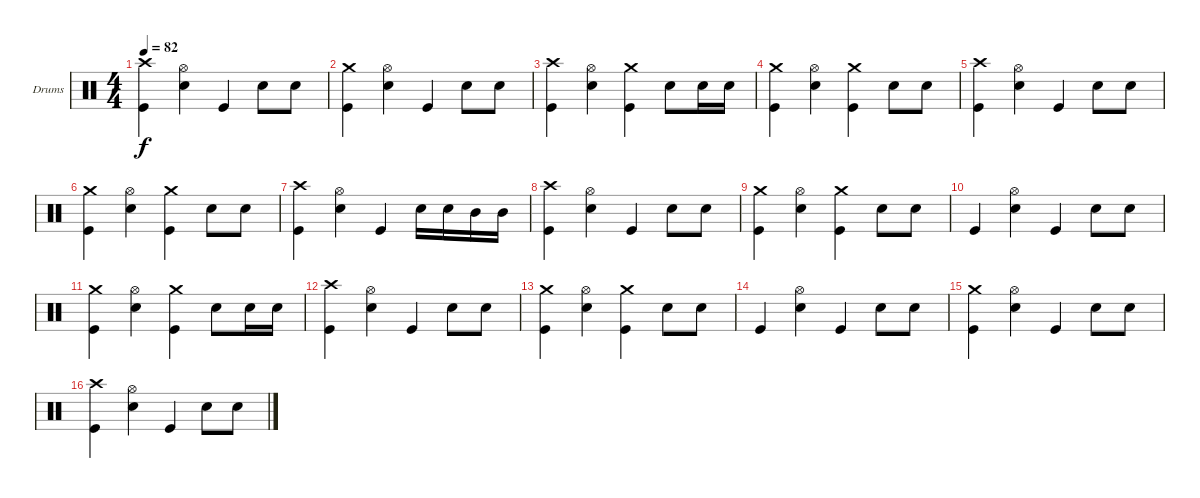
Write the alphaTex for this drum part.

\bracketExtendMode groupsimilarinstruments
\firstSystemTrackNameOrientation horizontal
\otherSystemsTrackNameOrientation horizontal
\track ("Drumkit" "Drums") {instrument percussion}
\staff {score}
\articulation defaults
\ts (4 4)
\tempo 82
\clef neutral
\ks c
("Crash high (hit)" "Kick (hit)").4{dy f} ("Hi-Hat (open)" "Snare (hit) 2").4 "Kick (hit)".4 "Snare (hit) 2".8 "Snare (hit) 2".8 |
("Crash medium (hit)" "Kick (hit)").4 ("Hi-Hat (open)" "Snare (hit) 2").4 "Kick (hit)".4 "Snare (hit) 2".8 "Snare (hit) 2".8 |
("Crash high (hit)" "Kick (hit)").4 ("Hi-Hat (open)" "Snare (hit) 2").4 ("Crash medium (hit)" "Kick (hit)").4 "Snare (hit) 2".8 "Snare (hit) 2".16 "Snare (hit) 2".16 |
("Crash medium (hit)" "Kick (hit)").4 ("Hi-Hat (open)" "Snare (hit) 2").4 ("Crash medium (hit)" "Kick (hit)").4 "Snare (hit) 2".8 "Snare (hit) 2".8 |
("Crash high (hit)" "Kick (hit)").4 ("Hi-Hat (open)" "Snare (hit) 2").4 "Kick (hit)".4 "Snare (hit) 2".8 "Snare (hit) 2".8 |
("Crash medium (hit)" "Kick (hit)").4 ("Hi-Hat (open)" "Snare (hit) 2").4 ("Crash medium (hit)" "Kick (hit)").4 "Snare (hit) 2".8 "Snare (hit) 2".8 |
("Crash high (hit)" "Kick (hit)").4 ("Hi-Hat (open)" "Snare (hit) 2").4 "Kick (hit)".4 "Snare (hit) 2".16 "Snare (hit) 2".16 "Mid Tom (hit)".16 "Mid Tom (hit)".16 |
("Crash high (hit)" "Kick (hit)").4 ("Hi-Hat (open)" "Snare (hit) 2").4 "Kick (hit)".4 "Snare (hit) 2".8 "Snare (hit) 2".8 |
("Crash medium (hit)" "Kick (hit)").4 ("Hi-Hat (open)" "Snare (hit) 2").4 ("Crash medium (hit)" "Kick (hit)").4 "Snare (hit) 2".8 "Snare (hit) 2".8 |
"Kick (hit)".4 ("Hi-Hat (open)" "Snare (hit) 2").4 "Kick (hit)".4 "Snare (hit) 2".8 "Snare (hit) 2".8 |
("Crash medium (hit)" "Kick (hit)").4 ("Hi-Hat (open)" "Snare (hit) 2").4 ("Crash medium (hit)" "Kick (hit)").4 "Snare (hit) 2".8 "Snare (hit) 2".16 "Snare (hit) 2".16 |
("Crash high (hit)" "Kick (hit)").4 ("Hi-Hat (open)" "Snare (hit) 2").4 "Kick (hit)".4 "Snare (hit) 2".8 "Snare (hit) 2".8 |
("Crash medium (hit)" "Kick (hit)").4 ("Hi-Hat (open)" "Snare (hit) 2").4 ("Crash medium (hit)" "Kick (hit)").4 "Snare (hit) 2".8 "Snare (hit) 2".8 |
"Kick (hit)".4 ("Hi-Hat (open)" "Snare (hit) 2").4 "Kick (hit)".4 "Snare (hit) 2".8 "Snare (hit) 2".8 |
("Crash medium (hit)" "Kick (hit)").4 ("Hi-Hat (open)" "Snare (hit) 2").4 "Kick (hit)".4 "Snare (hit) 2".8 "Snare (hit) 2".8 |
("Crash high (hit)" "Kick (hit)").4 ("Hi-Hat (open)" "Snare (hit) 2").4 "Kick (hit)".4 "Snare (hit) 2".8 "Snare (hit) 2".8
